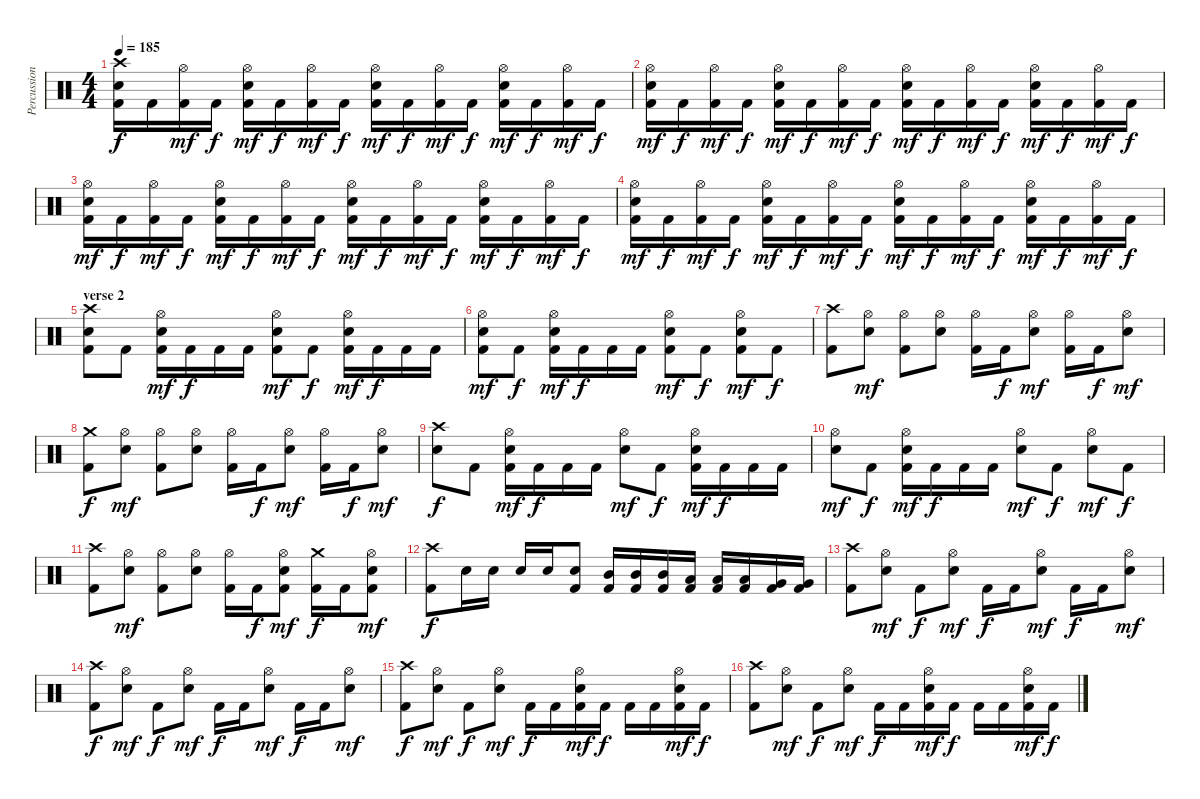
\track ("Percussion" "Percussion") {instrument percussion}
\staff {score}
\articulation defaults
\ts (4 4)
\tempo 185
\clef neutral
\ks c
("Crash high (hit)" "Electric Snare (hit)" "Kick (hit) 2").16{dy f} "Kick (hit) 2".16 ("Hi-Hat (open)" "Kick (hit) 2").16{dy mf} "Kick (hit) 2".16{dy f} ("Hi-Hat (open)" "Electric Snare (hit)" "Kick (hit) 2").16{dy mf} "Kick (hit) 2".16{dy f} ("Hi-Hat (open)" "Kick (hit) 2").16{dy mf} "Kick (hit) 2".16{dy f} ("Hi-Hat (open)" "Electric Snare (hit)" "Kick (hit) 2").16{dy mf} "Kick (hit) 2".16{dy f} ("Hi-Hat (open)" "Kick (hit) 2").16{dy mf} "Kick (hit) 2".16{dy f} ("Hi-Hat (open)" "Electric Snare (hit)" "Kick (hit) 2").16{dy mf} "Kick (hit) 2".16{dy f} ("Hi-Hat (open)" "Kick (hit) 2").16{dy mf} "Kick (hit) 2".16{dy f} |
("Hi-Hat (open)" "Electric Snare (hit)" "Kick (hit) 2").16{dy mf} "Kick (hit) 2".16{dy f} ("Hi-Hat (open)" "Kick (hit) 2").16{dy mf} "Kick (hit) 2".16{dy f} ("Hi-Hat (open)" "Electric Snare (hit)" "Kick (hit) 2").16{dy mf} "Kick (hit) 2".16{dy f} ("Hi-Hat (open)" "Kick (hit) 2").16{dy mf} "Kick (hit) 2".16{dy f} ("Hi-Hat (open)" "Electric Snare (hit)" "Kick (hit) 2").16{dy mf} "Kick (hit) 2".16{dy f} ("Hi-Hat (open)" "Kick (hit) 2").16{dy mf} "Kick (hit) 2".16{dy f} ("Hi-Hat (open)" "Electric Snare (hit)" "Kick (hit) 2").16{dy mf} "Kick (hit) 2".16{dy f} ("Hi-Hat (open)" "Kick (hit) 2").16{dy mf} "Kick (hit) 2".16{dy f} |
("Hi-Hat (open)" "Electric Snare (hit)" "Kick (hit) 2").16{dy mf} "Kick (hit) 2".16{dy f} ("Hi-Hat (open)" "Kick (hit) 2").16{dy mf} "Kick (hit) 2".16{dy f} ("Hi-Hat (open)" "Electric Snare (hit)" "Kick (hit) 2").16{dy mf} "Kick (hit) 2".16{dy f} ("Hi-Hat (open)" "Kick (hit) 2").16{dy mf} "Kick (hit) 2".16{dy f} ("Hi-Hat (open)" "Electric Snare (hit)" "Kick (hit) 2").16{dy mf} "Kick (hit) 2".16{dy f} ("Hi-Hat (open)" "Kick (hit) 2").16{dy mf} "Kick (hit) 2".16{dy f} ("Hi-Hat (open)" "Electric Snare (hit)" "Kick (hit) 2").16{dy mf} "Kick (hit) 2".16{dy f} ("Hi-Hat (open)" "Kick (hit) 2").16{dy mf} "Kick (hit) 2".16{dy f} |
("Hi-Hat (open)" "Electric Snare (hit)" "Kick (hit) 2").16{dy mf} "Kick (hit) 2".16{dy f} ("Hi-Hat (open)" "Kick (hit) 2").16{dy mf} "Kick (hit) 2".16{dy f} ("Hi-Hat (open)" "Electric Snare (hit)" "Kick (hit) 2").16{dy mf} "Kick (hit) 2".16{dy f} ("Hi-Hat (open)" "Kick (hit) 2").16{dy mf} "Kick (hit) 2".16{dy f} ("Hi-Hat (open)" "Electric Snare (hit)" "Kick (hit) 2").16{dy mf} "Kick (hit) 2".16{dy f} ("Hi-Hat (open)" "Kick (hit) 2").16{dy mf} "Kick (hit) 2".16{dy f} ("Hi-Hat (open)" "Electric Snare (hit)" "Kick (hit) 2").16{dy mf} "Kick (hit) 2".16{dy f} ("Hi-Hat (open)" "Kick (hit) 2").16{dy mf} "Kick (hit) 2".16{dy f} |
\section ("" "verse 2")
("Crash high (hit)" "Electric Snare (hit)" "Kick (hit) 2").8 "Kick (hit) 2".8 ("Hi-Hat (open)" "Electric Snare (hit)" "Kick (hit) 2").16{dy mf} "Kick (hit) 2".16{dy f} "Kick (hit) 2".16 "Kick (hit) 2".16 ("Hi-Hat (open)" "Electric Snare (hit)" "Kick (hit) 2").8{dy mf} "Kick (hit) 2".8{dy f} ("Hi-Hat (open)" "Electric Snare (hit)" "Kick (hit) 2").16{dy mf} "Kick (hit) 2".16{dy f} "Kick (hit) 2".16 "Kick (hit) 2".16 |
("Hi-Hat (open)" "Electric Snare (hit)" "Kick (hit) 2").8{dy mf} "Kick (hit) 2".8{dy f} ("Hi-Hat (open)" "Electric Snare (hit)" "Kick (hit) 2").16{dy mf} "Kick (hit) 2".16{dy f} "Kick (hit) 2".16 "Kick (hit) 2".16 ("Hi-Hat (open)" "Electric Snare (hit)" "Kick (hit) 2").8{dy mf} "Kick (hit) 2".8{dy f} ("Hi-Hat (open)" "Electric Snare (hit)" "Kick (hit) 2").8{dy mf} "Kick (hit) 2".8{dy f} |
("Crash high (hit)" "Kick (hit) 2").8 ("Hi-Hat (open)" "Electric Snare (hit)").8{dy mf} ("Hi-Hat (open)" "Kick (hit) 2").8 ("Hi-Hat (open)" "Electric Snare (hit)").8 ("Hi-Hat (open)" "Kick (hit) 2").16 "Kick (hit) 2".16{dy f} ("Hi-Hat (open)" "Electric Snare (hit)").8{dy mf} ("Hi-Hat (open)" "Kick (hit) 2").16 "Kick (hit) 2".16{dy f} ("Hi-Hat (open)" "Electric Snare (hit)").8{dy mf} |
("Crash medium (hit)" "Kick (hit) 2").8{dy f} ("Hi-Hat (open)" "Electric Snare (hit)").8{dy mf} ("Hi-Hat (open)" "Kick (hit) 2").8 ("Hi-Hat (open)" "Electric Snare (hit)").8 ("Hi-Hat (open)" "Kick (hit) 2").16 "Kick (hit) 2".16{dy f} ("Hi-Hat (open)" "Electric Snare (hit)").8{dy mf} ("Hi-Hat (open)" "Kick (hit) 2").16 "Kick (hit) 2".16{dy f} ("Hi-Hat (open)" "Electric Snare (hit)").8{dy mf} |
("Crash high (hit)" "Electric Snare (hit)").8{dy f} "Kick (hit) 2".8 ("Hi-Hat (open)" "Electric Snare (hit)" "Kick (hit) 2").16{dy mf} "Kick (hit) 2".16{dy f} "Kick (hit) 2".16 "Kick (hit) 2".16 ("Hi-Hat (open)" "Electric Snare (hit)").8{dy mf} "Kick (hit) 2".8{dy f} ("Hi-Hat (open)" "Electric Snare (hit)" "Kick (hit) 2").16{dy mf} "Kick (hit) 2".16{dy f} "Kick (hit) 2".16 "Kick (hit) 2".16 |
("Hi-Hat (open)" "Electric Snare (hit)").8{dy mf} "Kick (hit) 2".8{dy f} ("Hi-Hat (open)" "Electric Snare (hit)" "Kick (hit) 2").16{dy mf} "Kick (hit) 2".16{dy f} "Kick (hit) 2".16 "Kick (hit) 2".16 ("Hi-Hat (open)" "Electric Snare (hit)").8{dy mf} "Kick (hit) 2".8{dy f} ("Hi-Hat (open)" "Electric Snare (hit)").8{dy mf} "Kick (hit) 2".8{dy f} |
("Crash high (hit)" "Kick (hit) 2").8 ("Hi-Hat (open)" "Electric Snare (hit)").8{dy mf} ("Hi-Hat (open)" "Kick (hit) 2").8 ("Hi-Hat (open)" "Electric Snare (hit)").8 ("Hi-Hat (open)" "Kick (hit) 2").16 "Kick (hit) 2".16{dy f} ("Hi-Hat (open)" "Electric Snare (hit)" "Kick (hit) 2").8{dy mf} ("Crash medium (hit)" "Kick (hit) 2").16{dy f} "Kick (hit) 2".16 ("Hi-Hat (open)" "Electric Snare (hit)" "Kick (hit) 2").8{dy mf} |
("Crash high (hit)" "Kick (hit) 2").8{dy f} "Electric Snare (hit)".16 "Electric Snare (hit)".16 "Electric Snare (hit)".16 "Electric Snare (hit)".16 ("Electric Snare (hit)" "Kick (hit) 2").8 ("Mid Tom (hit)" "Kick (hit) 2").16 ("Mid Tom (hit)" "Kick (hit) 2").16 ("Mid Tom (hit)" "Kick (hit) 2").16 ("Low Tom (hit)" "Kick (hit) 2").16 ("Low Tom (hit)" "Kick (hit) 2").16 ("Low Tom (hit)" "Kick (hit) 2").16 ("Very Low Tom (hit)" "Kick (hit) 2").16 ("Very Low Tom (hit)" "Kick (hit) 2").16 |
\section ("" "")
("Crash high (hit)" "Kick (hit) 2").8 ("Hi-Hat (open)" "Electric Snare (hit)").8{dy mf} "Kick (hit) 2".8{dy f} ("Hi-Hat (open)" "Electric Snare (hit)").8{dy mf} "Kick (hit) 2".16{dy f} "Kick (hit) 2".16 ("Hi-Hat (open)" "Electric Snare (hit)").8{dy mf} "Kick (hit) 2".16{dy f} "Kick (hit) 2".16 ("Hi-Hat (open)" "Electric Snare (hit)").8{dy mf} |
("Crash high (hit)" "Kick (hit) 2").8{dy f} ("Hi-Hat (open)" "Electric Snare (hit)").8{dy mf} "Kick (hit) 2".8{dy f} ("Hi-Hat (open)" "Electric Snare (hit)").8{dy mf} "Kick (hit) 2".16{dy f} "Kick (hit) 2".16 ("Hi-Hat (open)" "Electric Snare (hit)").8{dy mf} "Kick (hit) 2".16{dy f} "Kick (hit) 2".16 ("Hi-Hat (open)" "Electric Snare (hit)").8{dy mf} |
("Crash high (hit)" "Kick (hit) 2").8{dy f} ("Hi-Hat (open)" "Electric Snare (hit)").8{dy mf} "Kick (hit) 2".8{dy f} ("Hi-Hat (open)" "Electric Snare (hit)").8{dy mf} "Kick (hit) 2".16{dy f} "Kick (hit) 2".16 ("Hi-Hat (open)" "Electric Snare (hit)" "Kick (hit) 2").16{dy mf} "Kick (hit) 2".16{dy f} "Kick (hit) 2".16 "Kick (hit) 2".16 ("Hi-Hat (open)" "Electric Snare (hit)" "Kick (hit) 2").16{dy mf} "Kick (hit) 2".16{dy f} |
("Crash high (hit)" "Kick (hit) 2").8 ("Hi-Hat (open)" "Electric Snare (hit)").8{dy mf} "Kick (hit) 2".8{dy f} ("Hi-Hat (open)" "Electric Snare (hit)").8{dy mf} "Kick (hit) 2".16{dy f} "Kick (hit) 2".16 ("Hi-Hat (open)" "Electric Snare (hit)" "Kick (hit) 2").16{dy mf} "Kick (hit) 2".16{dy f} "Kick (hit) 2".16 "Kick (hit) 2".16 ("Hi-Hat (open)" "Electric Snare (hit)" "Kick (hit) 2").16{dy mf} "Kick (hit) 2".16{dy f}
